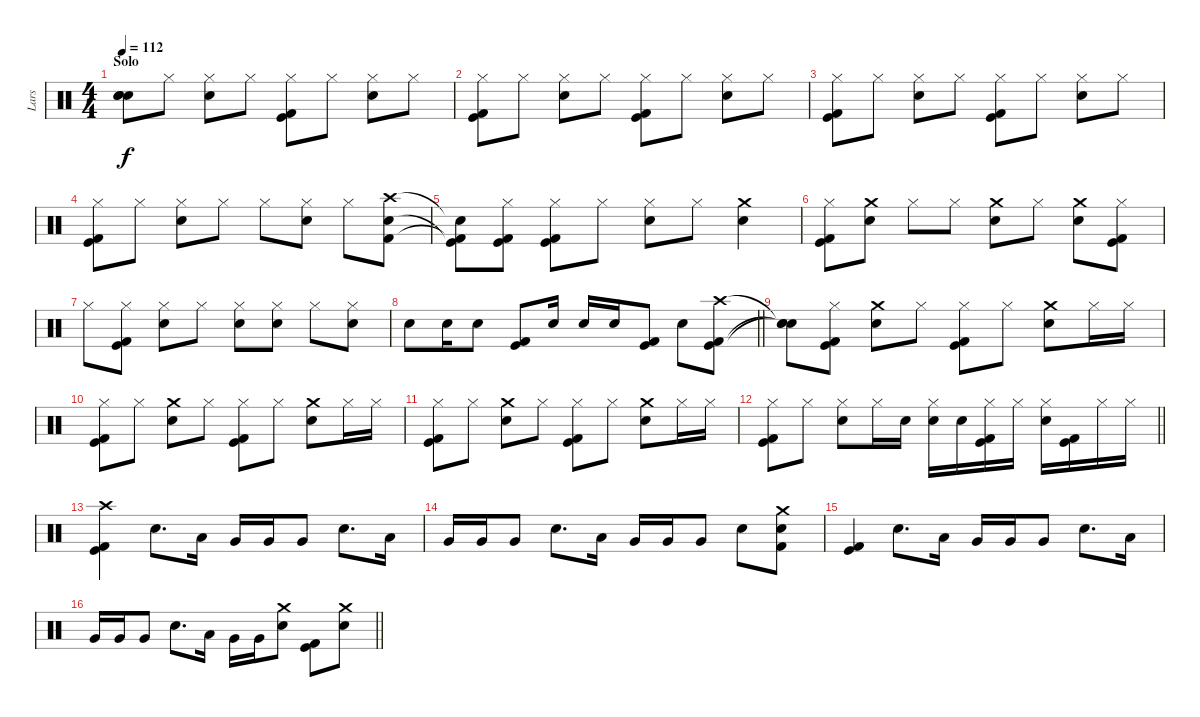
\track ("Lars" "Lars") {instrument percussion}
\staff {score}
\articulation defaults
\ts (4 4)
\section ("" "Solo")
\tempo 112
\clef neutral
\ks c
("Snare (hit)"{t} "Snare (hit)"{t} "Snare (hit)"{t}).8{dy f} "Hi-Hat (closed)".8 ("Hi-Hat (closed)" "Electric Snare (hit)").8 "Hi-Hat (closed)".8 ("Hi-Hat (closed)" "Kick (hit)" "Kick (hit) 2").8 "Hi-Hat (closed)".8 ("Hi-Hat (closed)" "Electric Snare (hit)").8 "Hi-Hat (closed)".8 |
("Hi-Hat (closed)" "Kick (hit)" "Kick (hit) 2").8 "Hi-Hat (closed)".8 ("Hi-Hat (closed)" "Electric Snare (hit)").8 "Hi-Hat (closed)".8 ("Hi-Hat (closed)" "Kick (hit)" "Kick (hit) 2").8 "Hi-Hat (closed)".8 ("Hi-Hat (closed)" "Electric Snare (hit)").8 "Hi-Hat (closed)".8 |
("Hi-Hat (closed)" "Kick (hit)" "Kick (hit) 2").8 "Hi-Hat (closed)".8 ("Hi-Hat (closed)" "Electric Snare (hit)").8 "Hi-Hat (closed)".8 ("Hi-Hat (closed)" "Kick (hit)" "Kick (hit) 2").8 "Hi-Hat (closed)".8 ("Hi-Hat (closed)" "Electric Snare (hit)").8 "Hi-Hat (closed)".8 |
("Hi-Hat (closed)" "Kick (hit)" "Kick (hit) 2").8 "Hi-Hat (closed)".8 ("Hi-Hat (closed)" "Electric Snare (hit)").8 "Hi-Hat (closed)".8 "Hi-Hat (closed)".8 ("Hi-Hat (closed)" "Electric Snare (hit)").8 "Hi-Hat (closed)".8 ("Crash high (hit)" "Electric Snare (hit)" "Kick (hit) 2").8 |
("Snare (hit)"{t} "Kick (hit)"{t} "Kick (hit) 2"{t}).8 ("Hi-Hat (closed)" "Kick (hit)" "Kick (hit) 2").8 ("Hi-Hat (closed)" "Kick (hit)" "Kick (hit) 2").8 "Hi-Hat (closed)".8 ("Hi-Hat (closed)" "Electric Snare (hit)").8 "Hi-Hat (closed)".8 ("Crash medium (hit)" "Electric Snare (hit)").4 |
("Hi-Hat (closed)" "Kick (hit)" "Kick (hit) 2").8 ("Crash medium (hit)" "Electric Snare (hit)").8 "Hi-Hat (closed)".8 "Hi-Hat (closed)".8 ("Crash medium (hit)" "Electric Snare (hit)").8 "Hi-Hat (closed)".8 ("Crash medium (hit)" "Electric Snare (hit)").8 ("Hi-Hat (closed)" "Kick (hit)" "Kick (hit) 2").8 |
"Hi-Hat (closed)".8 ("Hi-Hat (closed)" "Kick (hit)" "Kick (hit) 2").8 ("Hi-Hat (closed)" "Electric Snare (hit)").8 "Hi-Hat (closed)".8 ("Hi-Hat (closed)" "Electric Snare (hit)").8 ("Hi-Hat (closed)" "Electric Snare (hit)").8 "Hi-Hat (closed)".8 ("Hi-Hat (closed)" "Electric Snare (hit)").8 |
\barLineRight lightlight "Electric Snare (hit)".8 "Electric Snare (hit)".16 "Electric Snare (hit)".8
("Kick (hit)" "Kick (hit) 2").8 "Electric Snare (hit)".16 "Electric Snare (hit)".16 "Electric Snare (hit)".16 ("Kick (hit)" "Kick (hit) 2").8 "Electric Snare (hit)".8 ("Crash high (hit)" "Kick (hit)" "Kick (hit) 2").8 |
\section ("" "")
("Snare (hit)"{t} "Snare (hit)"{t} "Snare (hit)"{t}).8 ("Hi-Hat (closed)" "Kick (hit)" "Kick (hit) 2").8 ("Crash medium (hit)" "Electric Snare (hit)").8 "Hi-Hat (closed)".8 ("Hi-Hat (closed)" "Kick (hit)" "Kick (hit) 2").8 "Hi-Hat (closed)".8 ("Crash medium (hit)" "Electric Snare (hit)").8 "Hi-Hat (closed)".16 "Hi-Hat (closed)".16 |
("Hi-Hat (closed)" "Kick (hit)" "Kick (hit) 2").8 "Hi-Hat (closed)".8 ("Crash medium (hit)" "Electric Snare (hit)").8 "Hi-Hat (closed)".8 ("Hi-Hat (closed)" "Kick (hit)" "Kick (hit) 2").8 "Hi-Hat (closed)".8 ("Crash medium (hit)" "Electric Snare (hit)").8 "Hi-Hat (closed)".16 "Hi-Hat (closed)".16 |
("Hi-Hat (closed)" "Kick (hit)" "Kick (hit) 2").8 "Hi-Hat (closed)".8 ("Crash medium (hit)" "Electric Snare (hit)").8 "Hi-Hat (closed)".8 ("Hi-Hat (closed)" "Kick (hit)" "Kick (hit) 2").8 "Hi-Hat (closed)".8 ("Crash medium (hit)" "Electric Snare (hit)").8 "Hi-Hat (closed)".16 "Hi-Hat (closed)".16 |
\barLineRight lightlight
("Hi-Hat (closed)" "Kick (hit)" "Kick (hit) 2").8 "Hi-Hat (closed)".8 ("Hi-Hat (closed)" "Electric Snare (hit)").8 "Hi-Hat (closed)".16 "Electric Snare (hit)".16 ("Hi-Hat (closed)" "Electric Snare (hit)").16 "Electric Snare (hit)".16 ("Hi-Hat (closed)" "Kick (hit)" "Kick (hit) 2").16 "Hi-Hat (closed)".16 ("Hi-Hat (closed)" "Electric Snare (hit)").16 ("Kick (hit)" "Kick (hit) 2").16 "Hi-Hat (closed)".16 "Hi-Hat (closed)".16 |
\section ("" "")
("Crash high (hit)" "Kick (hit)" "Kick (hit) 2").4 "Electric Snare (hit)".8{d} "Low Tom (hit)".16 "Very Low Tom (hit)".16 "Very Low Tom (hit)".16 "Very Low Tom (hit)".8 "Electric Snare (hit)".8{d} "Low Tom (hit)".16 |
"Very Low Tom (hit)".16 "Very Low Tom (hit)".16 "Very Low Tom (hit)".8 "Electric Snare (hit)".8{d} "Low Tom (hit)".16 "Very Low Tom (hit)".16 "Very Low Tom (hit)".16 "Very Low Tom (hit)".8 "Electric Snare (hit)".8 ("Crash medium (hit)" "Electric Snare (hit)" "Kick (hit) 2").8 |
("Kick (hit)" "Kick (hit) 2").4 "Electric Snare (hit)".8{d} "Low Tom (hit)".16 "Very Low Tom (hit)".16 "Very Low Tom (hit)".16 "Very Low Tom (hit)".8 "Electric Snare (hit)".8{d} "Low Tom (hit)".16 |
\barLineRight lightlight "Very Low Tom (hit)".16 "Very Low Tom (hit)".16 "Very Low Tom (hit)".8 "Electric Snare (hit)".8{d} "Low Tom (hit)".16 "Very Low Tom (hit)".16 "Very Low Tom (hit)".16
("Crash medium (hit)" "Electric Snare (hit)").8 ("Kick (hit)" "Kick (hit) 2").8 ("Crash medium (hit)" "Electric Snare (hit)").8
